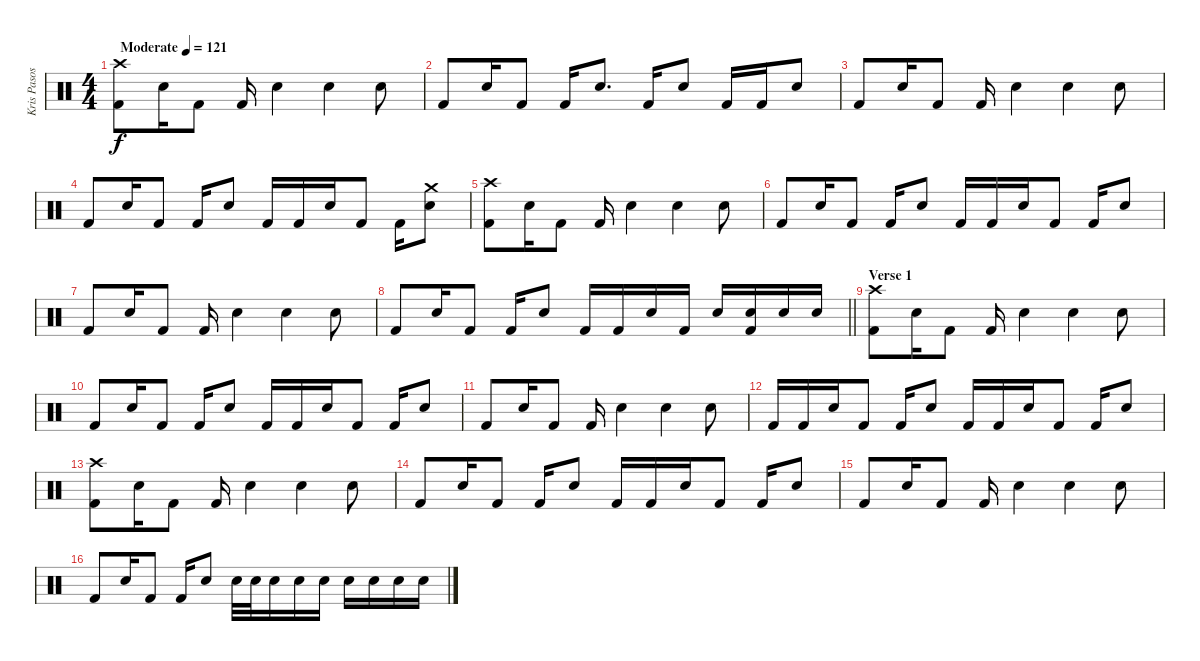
\track ("Kris Pasos" "Kris Pasos") {instrument percussion}
\staff {score}
\articulation defaults
\ts (4 4)
\tempo (121 "Moderate")
\clef neutral
\ks c
("Crash high (hit)" "Kick (hit) 2").8{dy f} "Snare (hit) 2".16 "Kick (hit) 2".8 "Kick (hit) 2".16 "Snare (hit) 2".4 "Snare (hit) 2".4 "Snare (hit) 2".8 |
"Kick (hit) 2".8 "Snare (hit) 2".16 "Kick (hit) 2".8 "Kick (hit) 2".16 "Snare (hit) 2".8{d} "Kick (hit) 2".16 "Snare (hit) 2".8 "Kick (hit) 2".16 "Kick (hit) 2".16 "Snare (hit) 2".8 |
"Kick (hit) 2".8 "Snare (hit) 2".16 "Kick (hit) 2".8 "Kick (hit) 2".16 "Snare (hit) 2".4 "Snare (hit) 2".4 "Snare (hit) 2".8 |
"Kick (hit) 2".8 "Snare (hit) 2".16 "Kick (hit) 2".8 "Kick (hit) 2".16 "Snare (hit) 2".8 "Kick (hit) 2".16 "Kick (hit) 2".16 "Snare (hit) 2".16 "Kick (hit) 2".8 "Kick (hit) 2".16 ("Crash medium (hit)" "Snare (hit) 2").8 |
("Crash high (hit)" "Kick (hit) 2").8 "Snare (hit) 2".16 "Kick (hit) 2".8 "Kick (hit) 2".16 "Snare (hit) 2".4 "Snare (hit) 2".4 "Snare (hit) 2".8 |
"Kick (hit) 2".8 "Snare (hit) 2".16 "Kick (hit) 2".8 "Kick (hit) 2".16 "Snare (hit) 2".8 "Kick (hit) 2".16 "Kick (hit) 2".16 "Snare (hit) 2".16 "Kick (hit) 2".8 "Kick (hit) 2".16 "Snare (hit) 2".8 |
"Kick (hit) 2".8 "Snare (hit) 2".16 "Kick (hit) 2".8 "Kick (hit) 2".16 "Snare (hit) 2".4 "Snare (hit) 2".4 "Snare (hit) 2".8 |
\barLineRight lightlight "Kick (hit) 2".8 "Snare (hit) 2".16 "Kick (hit) 2".8 "Kick (hit) 2".16 "Snare (hit) 2".8 "Kick (hit) 2".16 "Kick (hit) 2".16 "Snare (hit) 2".16 "Kick (hit) 2".16 "Snare (hit) 2".16
("Snare (hit) 2" "Kick (hit) 2").16 "Snare (hit) 2".16 "Snare (hit) 2".16 |
\section ("" "Verse 1")
("Crash high (hit)" "Kick (hit) 2").8 "Snare (hit) 2".16 "Kick (hit) 2".8 "Kick (hit) 2".16 "Snare (hit) 2".4 "Snare (hit) 2".4 "Snare (hit) 2".8 |
"Kick (hit) 2".8 "Snare (hit) 2".16 "Kick (hit) 2".8 "Kick (hit) 2".16 "Snare (hit) 2".8 "Kick (hit) 2".16 "Kick (hit) 2".16 "Snare (hit) 2".16 "Kick (hit) 2".8 "Kick (hit) 2".16 "Snare (hit) 2".8 |
"Kick (hit) 2".8 "Snare (hit) 2".16 "Kick (hit) 2".8 "Kick (hit) 2".16 "Snare (hit) 2".4 "Snare (hit) 2".4 "Snare (hit) 2".8 |
"Kick (hit) 2".16 "Kick (hit) 2".16 "Snare (hit) 2".16 "Kick (hit) 2".8 "Kick (hit) 2".16 "Snare (hit) 2".8 "Kick (hit) 2".16 "Kick (hit) 2".16 "Snare (hit) 2".16 "Kick (hit) 2".8 "Kick (hit) 2".16 "Snare (hit) 2".8 |
("Crash high (hit)" "Kick (hit) 2").8 "Snare (hit) 2".16 "Kick (hit) 2".8 "Kick (hit) 2".16 "Snare (hit) 2".4 "Snare (hit) 2".4 "Snare (hit) 2".8 |
"Kick (hit) 2".8 "Snare (hit) 2".16 "Kick (hit) 2".8 "Kick (hit) 2".16 "Snare (hit) 2".8 "Kick (hit) 2".16 "Kick (hit) 2".16 "Snare (hit) 2".16 "Kick (hit) 2".8 "Kick (hit) 2".16 "Snare (hit) 2".8 |
"Kick (hit) 2".8 "Snare (hit) 2".16 "Kick (hit) 2".8 "Kick (hit) 2".16 "Snare (hit) 2".4 "Snare (hit) 2".4 "Snare (hit) 2".8 |
"Kick (hit) 2".8 "Snare (hit) 2".16 "Kick (hit) 2".8 "Kick (hit) 2".16 "Snare (hit) 2".8 "Snare (hit) 2".32 "Snare (hit) 2".32 "Snare (hit) 2".16 "Snare (hit) 2".16 "Snare (hit) 2".16 "Snare (hit) 2".16 "Snare (hit) 2".16 "Snare (hit) 2".16 "Snare (hit) 2".16
